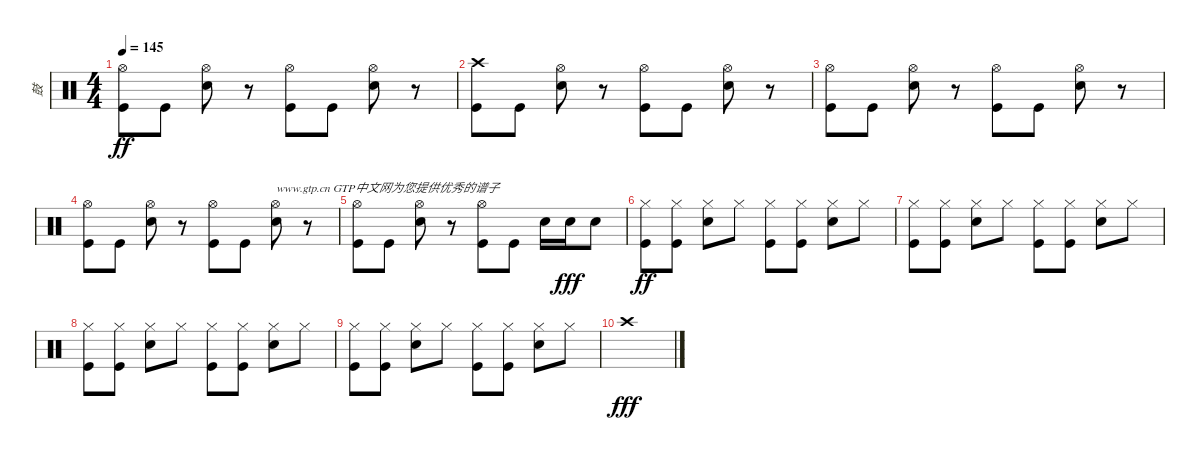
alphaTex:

\track ("鼓" "鼓") {instrument percussion}
\staff {score}
\articulation defaults
\ts (4 4)
\tempo 145
\clef neutral
\ks c
("Hi-Hat (open)" "Kick (hit)").8{dy ff} "Kick (hit)".8 ("Hi-Hat (open)" "Snare (hit) 2").8 r.8 ("Hi-Hat (open)" "Kick (hit)").8 "Kick (hit)".8 ("Hi-Hat (open)" "Snare (hit) 2").8 r.8 |
("Crash high (hit)" "Kick (hit)").8 "Kick (hit)".8 ("Hi-Hat (open)" "Snare (hit) 2").8 r.8 ("Hi-Hat (open)" "Kick (hit)").8 "Kick (hit)".8 ("Hi-Hat (open)" "Snare (hit) 2").8 r.8 |
("Hi-Hat (open)" "Kick (hit)").8 "Kick (hit)".8 ("Hi-Hat (open)" "Snare (hit) 2").8 r.8 ("Hi-Hat (open)" "Kick (hit)").8 "Kick (hit)".8 ("Hi-Hat (open)" "Snare (hit) 2").8 r.8 |
("Hi-Hat (open)" "Kick (hit)").8 "Kick (hit)".8 ("Hi-Hat (open)" "Snare (hit) 2").8 r.8 ("Hi-Hat (open)" "Kick (hit)").8 "Kick (hit)".8 ("Hi-Hat (open)" "Snare (hit) 2").8{txt "www.gtp.cn GTP中文网为您提供优秀的谱子"} r.8 |
("Hi-Hat (open)" "Kick (hit)").8 "Kick (hit)".8 ("Hi-Hat (open)" "Snare (hit) 2").8 r.8 ("Hi-Hat (open)" "Kick (hit)").8 "Kick (hit)".8 "Snare (hit) 2".16 "Snare (hit) 2".16{dy fff} "Snare (hit) 2".8 |
("Hi-Hat (closed)" "Kick (hit)").8{dy ff} ("Hi-Hat (closed)" "Kick (hit)").8 ("Hi-Hat (closed)" "Snare (hit) 2").8 "Hi-Hat (closed)".8 ("Hi-Hat (closed)" "Kick (hit)").8 ("Hi-Hat (closed)" "Kick (hit)").8 ("Hi-Hat (closed)" "Snare (hit) 2").8 "Hi-Hat (closed)".8 |
("Hi-Hat (closed)" "Kick (hit)").8 ("Hi-Hat (closed)" "Kick (hit)").8 ("Hi-Hat (closed)" "Snare (hit) 2").8 "Hi-Hat (closed)".8 ("Hi-Hat (closed)" "Kick (hit)").8 ("Hi-Hat (closed)" "Kick (hit)").8 ("Hi-Hat (closed)" "Snare (hit) 2").8 "Hi-Hat (closed)".8 |
("Hi-Hat (closed)" "Kick (hit)").8 ("Hi-Hat (closed)" "Kick (hit)").8 ("Hi-Hat (closed)" "Snare (hit) 2").8 "Hi-Hat (closed)".8 ("Hi-Hat (closed)" "Kick (hit)").8 ("Hi-Hat (closed)" "Kick (hit)").8 ("Hi-Hat (closed)" "Snare (hit) 2").8 "Hi-Hat (closed)".8 |
("Hi-Hat (closed)" "Kick (hit)").8 ("Hi-Hat (closed)" "Kick (hit)").8 ("Hi-Hat (closed)" "Snare (hit) 2").8 "Hi-Hat (closed)".8 ("Hi-Hat (closed)" "Kick (hit)").8 ("Hi-Hat (closed)" "Kick (hit)").8 ("Hi-Hat (closed)" "Snare (hit) 2").8 "Hi-Hat (closed)".8 |
"Crash high (hit)".1{dy fff}
